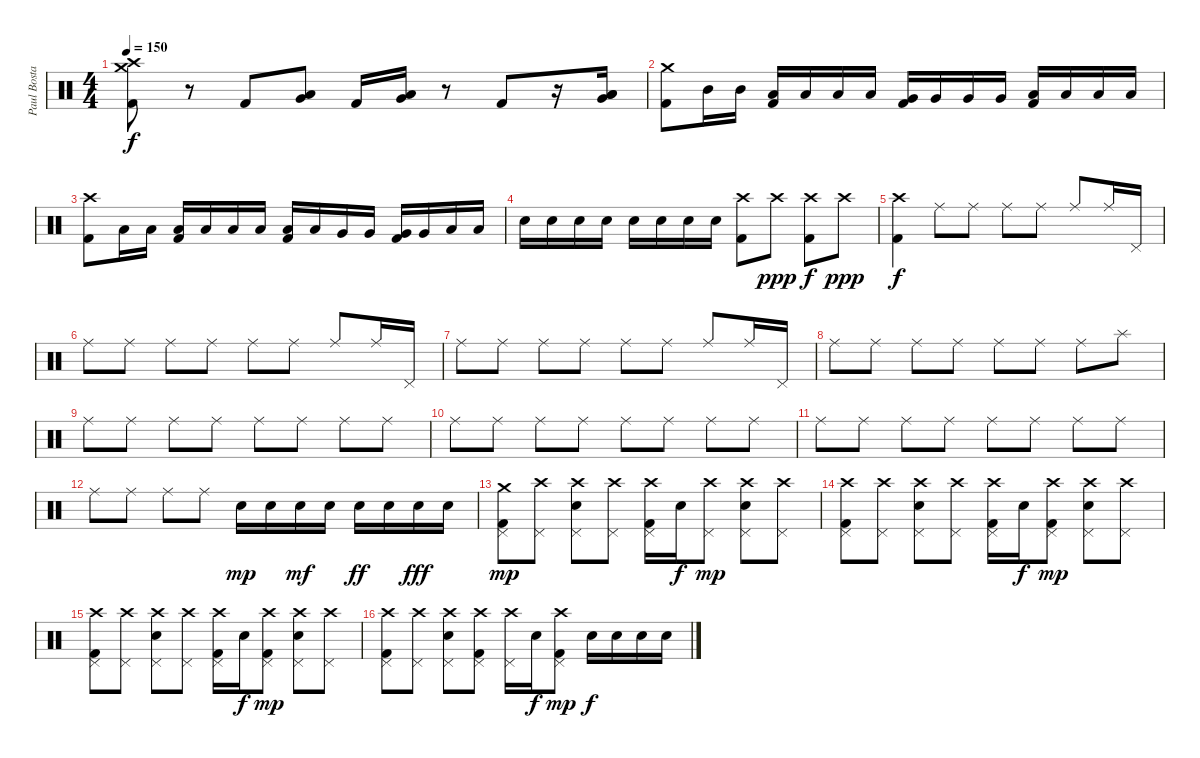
\track ("Paul Bostaph" "Paul Bosta") {instrument percussion}
\staff {score}
\articulation defaults
\ts (4 4)
\tempo 150
\clef neutral
\ks c
("Crash high (hit)" "Kick (hit) 2" "Crash medium (hit)").8{dy f} r.8 "Kick (hit) 2".8 ("Low Tom (hit)" "Very Low Tom (hit)").8 "Kick (hit) 2".16 ("Very Low Tom (hit)" "Low Tom (hit)").16 r.8 "Kick (hit) 2".8 r.16 ("Low Tom (hit)" "Low Floor Tom (hit)" "Very Low Tom (hit)").16 |
("Crash medium (hit)" "Kick (hit) 2").8 "Mid Tom (hit)".16 "Mid Tom (hit)".16 ("Low Tom (hit)" "Kick (hit) 2").16 "Low Tom (hit)".16 "Low Tom (hit)".16 "Low Tom (hit)".16 ("Very Low Tom (hit)" "Kick (hit) 2").16 "Very Low Tom (hit)".16 "Very Low Tom (hit)".16 "Very Low Tom (hit)".16 ("Low Floor Tom (hit)" "Kick (hit) 2").16 "Low Floor Tom (hit)".16 "Low Floor Tom (hit)".16 "Low Floor Tom (hit)".16 |
("Kick (hit) 2" "Crash high (hit)").8 "Low Tom (hit)".16 "Low Tom (hit)".16 ("Low Tom (hit)" "Kick (hit) 2").16 "Low Tom (hit)".16 "Low Tom (hit)".16 "Low Tom (hit)".16 ("Low Tom (hit)" "Kick (hit) 2").16 "Low Tom (hit)".16 "Very Low Tom (hit)".16 "Very Low Tom (hit)".16 ("Very Low Tom (hit)" "Kick (hit) 2").16 "Very Low Tom (hit)".16 "Low Floor Tom (hit)".16 "Low Floor Tom (hit)".16 |
"Electric Snare (hit)".16 "Electric Snare (hit)".16 "Electric Snare (hit)".16 "Electric Snare (hit)".16 "Electric Snare (hit)".16 "Electric Snare (hit)".16 "Electric Snare (hit)".16 "Electric Snare (hit)".16 ("Crash high (hit)" "Kick (hit) 2").8 "Crash high (hit)".8{dy ppp} ("Crash high (hit)" "Kick (hit) 2").8{dy f} "Crash high (hit)".8{dy ppp} |
("Crash high (hit)" "Kick (hit) 2").4{dy f} "Ride (middle)".8 "Ride (middle)".8 "Ride (middle)".8 "Ride (middle)".8 "Ride (middle)".8 "Ride (middle)".16 "Pedal Hi-Hat (hit)".16 |
"Ride (middle)".8 "Ride (middle)".8 "Ride (middle)".8 "Ride (middle)".8 "Ride (middle)".8 "Ride (middle)".8 "Ride (middle)".8 "Ride (middle)".16 "Pedal Hi-Hat (hit)".16 |
"Ride (middle)".8 "Ride (middle)".8 "Ride (middle)".8 "Ride (middle)".8 "Ride (middle)".8 "Ride (middle)".8 "Ride (middle)".8 "Ride (middle)".16 "Pedal Hi-Hat (hit)".16 |
"Ride (middle)".8 "Ride (middle)".8 "Ride (middle)".8 "Ride (middle)".8 "Ride (middle)".8 "Ride (middle)".8 "Ride (middle)".8 "Splash (hit)".8 |
"Ride (middle)".8 "Ride (middle)".8 "Ride (middle)".8 "Ride (middle)".8 "Ride (middle)".8 "Ride (middle)".8 "Ride (middle)".8 "Ride (middle)".8 |
"Ride (middle)".8 "Ride (middle)".8 "Ride (middle)".8 "Ride (middle)".8 "Ride (middle)".8 "Ride (middle)".8 "Ride (middle)".8 "Ride (middle)".8 |
"Ride (middle)".8 "Ride (middle)".8 "Ride (middle)".8 "Ride (middle)".8 "Ride (middle)".8 "Ride (middle)".8 "Ride (middle)".8 "Ride (middle)".8 |
"Ride (middle)".8 "Ride (middle)".8 "Ride (middle)".8 "Ride (middle)".8 "Electric Snare (hit)".16{dy mp} "Electric Snare (hit)".16 "Electric Snare (hit)".16{dy mf} "Electric Snare (hit)".16 "Electric Snare (hit)".16{dy ff} "Electric Snare (hit)".16 "Electric Snare (hit)".16{dy fff} "Electric Snare (hit)".16 |
("Pedal Hi-Hat (hit)" "Crash medium (hit)" "Kick (hit) 2").8{dy mp} ("Pedal Hi-Hat (hit)" "Crash high (hit)").8 ("Pedal Hi-Hat (hit)" "Crash high (hit)" "Electric Snare (hit)").8 ("Pedal Hi-Hat (hit)" "Crash high (hit)").8 ("Pedal Hi-Hat (hit)" "Crash high (hit)" "Kick (hit) 2").16 "Electric Snare (hit)".16{dy f} ("Pedal Hi-Hat (hit)" "Crash high (hit)").8{dy mp} ("Pedal Hi-Hat (hit)" "Crash high (hit)" "Electric Snare (hit)").8 ("Pedal Hi-Hat (hit)" "Crash high (hit)").8 |
("Pedal Hi-Hat (hit)" "Crash high (hit)" "Kick (hit) 2").8 ("Pedal Hi-Hat (hit)" "Crash high (hit)").8 ("Pedal Hi-Hat (hit)" "Crash high (hit)" "Electric Snare (hit)").8 ("Pedal Hi-Hat (hit)" "Crash high (hit)").8 ("Pedal Hi-Hat (hit)" "Crash high (hit)" "Kick (hit) 2").16 "Electric Snare (hit)".16{dy f} ("Pedal Hi-Hat (hit)" "Crash high (hit)" "Kick (hit) 2").8{dy mp} ("Pedal Hi-Hat (hit)" "Crash high (hit)" "Electric Snare (hit)").8 ("Pedal Hi-Hat (hit)" "Crash high (hit)").8 |
("Pedal Hi-Hat (hit)" "Crash high (hit)" "Kick (hit) 2").8 ("Pedal Hi-Hat (hit)" "Crash high (hit)").8 ("Pedal Hi-Hat (hit)" "Crash high (hit)" "Electric Snare (hit)").8 ("Pedal Hi-Hat (hit)" "Crash high (hit)").8 ("Pedal Hi-Hat (hit)" "Crash high (hit)" "Kick (hit) 2").16 "Electric Snare (hit)".16{dy f} ("Pedal Hi-Hat (hit)" "Crash high (hit)" "Kick (hit) 2").8{dy mp} ("Pedal Hi-Hat (hit)" "Crash high (hit)" "Electric Snare (hit)").8 ("Pedal Hi-Hat (hit)" "Crash high (hit)").8 |
("Pedal Hi-Hat (hit)" "Crash high (hit)" "Kick (hit) 2").8 ("Pedal Hi-Hat (hit)" "Crash high (hit)").8 ("Pedal Hi-Hat (hit)" "Crash high (hit)" "Electric Snare (hit)").8 ("Pedal Hi-Hat (hit)" "Crash high (hit)" "Kick (hit) 2").8 ("Pedal Hi-Hat (hit)" "Crash high (hit)").16 "Electric Snare (hit)".16{dy f} ("Pedal Hi-Hat (hit)" "Crash high (hit)" "Kick (hit) 2").8{dy mp} "Electric Snare (hit)".16{dy f} "Electric Snare (hit)".16 "Electric Snare (hit)".16 "Electric Snare (hit)".16
